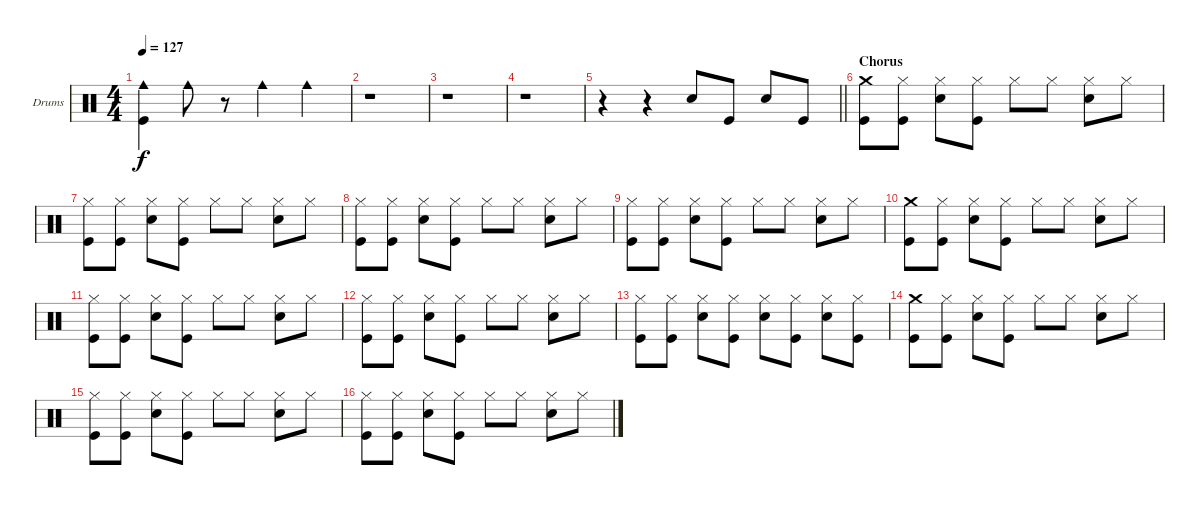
\bracketExtendMode groupsimilarinstruments
\firstSystemTrackNameOrientation horizontal
\otherSystemsTrackNameOrientation horizontal
\track ("Drumkit" "Drums") {instrument percussion}
\staff {score}
\articulation defaults
\ts (4 4)
\tempo 127
\clef neutral
\ks c
("Cowbell medium (hit)" "Kick (hit)").4{dy f} "Cowbell medium (hit)".8 r.8 "Cowbell medium (hit)".4 "Cowbell medium (hit)".4 |
r.1 |
r.1 |
r.1 |
\barLineRight lightlight
r.4 r.4 "Snare (hit) 2".8 "Kick (hit)".8 "Snare (hit) 2".8 "Kick (hit)".8 |
\section ("" "Chorus")
("Crash medium (hit)" "Kick (hit)").8 ("Hi-Hat (closed)" "Kick (hit)").8 ("Hi-Hat (closed)" "Snare (hit) 2").8 ("Hi-Hat (closed)" "Kick (hit)").8 "Hi-Hat (closed)".8 "Hi-Hat (closed)".8 ("Hi-Hat (closed)" "Snare (hit) 2").8 "Hi-Hat (closed)".8 |
("Hi-Hat (closed)" "Kick (hit)").8 ("Hi-Hat (closed)" "Kick (hit)").8 ("Hi-Hat (closed)" "Snare (hit) 2").8 ("Hi-Hat (closed)" "Kick (hit)").8 "Hi-Hat (closed)".8 "Hi-Hat (closed)".8 ("Hi-Hat (closed)" "Snare (hit) 2").8 "Hi-Hat (closed)".8 |
("Hi-Hat (closed)" "Kick (hit)").8 ("Hi-Hat (closed)" "Kick (hit)").8 ("Hi-Hat (closed)" "Snare (hit) 2").8 ("Hi-Hat (closed)" "Kick (hit)").8 "Hi-Hat (closed)".8 "Hi-Hat (closed)".8 ("Hi-Hat (closed)" "Snare (hit) 2").8 "Hi-Hat (closed)".8 |
("Hi-Hat (closed)" "Kick (hit)").8 ("Hi-Hat (closed)" "Kick (hit)").8 ("Hi-Hat (closed)" "Snare (hit) 2").8 ("Hi-Hat (closed)" "Kick (hit)").8 "Hi-Hat (closed)".8 "Hi-Hat (closed)".8 ("Hi-Hat (closed)" "Snare (hit) 2").8 "Hi-Hat (closed)".8 |
("Crash medium (hit)" "Kick (hit)").8 ("Hi-Hat (closed)" "Kick (hit)").8 ("Hi-Hat (closed)" "Snare (hit) 2").8 ("Hi-Hat (closed)" "Kick (hit)").8 "Hi-Hat (closed)".8 "Hi-Hat (closed)".8 ("Hi-Hat (closed)" "Snare (hit) 2").8 "Hi-Hat (closed)".8 |
("Hi-Hat (closed)" "Kick (hit)").8 ("Hi-Hat (closed)" "Kick (hit)").8 ("Hi-Hat (closed)" "Snare (hit) 2").8 ("Hi-Hat (closed)" "Kick (hit)").8 "Hi-Hat (closed)".8 "Hi-Hat (closed)".8 ("Hi-Hat (closed)" "Snare (hit) 2").8 "Hi-Hat (closed)".8 |
("Hi-Hat (closed)" "Kick (hit)").8 ("Hi-Hat (closed)" "Kick (hit)").8 ("Hi-Hat (closed)" "Snare (hit) 2").8 ("Hi-Hat (closed)" "Kick (hit)").8 "Hi-Hat (closed)".8 "Hi-Hat (closed)".8 ("Hi-Hat (closed)" "Snare (hit) 2").8 "Hi-Hat (closed)".8 |
("Hi-Hat (closed)" "Kick (hit)").8 ("Hi-Hat (closed)" "Kick (hit)").8 ("Hi-Hat (closed)" "Snare (hit) 2").8 ("Hi-Hat (closed)" "Kick (hit)").8 ("Hi-Hat (closed)" "Snare (hit) 2").8 ("Hi-Hat (closed)" "Kick (hit)").8 ("Hi-Hat (closed)" "Snare (hit) 2").8 ("Hi-Hat (closed)" "Kick (hit)").8 |
("Crash medium (hit)" "Kick (hit)").8 ("Hi-Hat (closed)" "Kick (hit)").8 ("Hi-Hat (closed)" "Snare (hit) 2").8 ("Hi-Hat (closed)" "Kick (hit)").8 "Hi-Hat (closed)".8 "Hi-Hat (closed)".8 ("Hi-Hat (closed)" "Snare (hit) 2").8 "Hi-Hat (closed)".8 |
("Hi-Hat (closed)" "Kick (hit)").8 ("Hi-Hat (closed)" "Kick (hit)").8 ("Hi-Hat (closed)" "Snare (hit) 2").8 ("Hi-Hat (closed)" "Kick (hit)").8 "Hi-Hat (closed)".8 "Hi-Hat (closed)".8 ("Hi-Hat (closed)" "Snare (hit) 2").8 "Hi-Hat (closed)".8 |
("Hi-Hat (closed)" "Kick (hit)").8 ("Hi-Hat (closed)" "Kick (hit)").8 ("Hi-Hat (closed)" "Snare (hit) 2").8 ("Hi-Hat (closed)" "Kick (hit)").8 "Hi-Hat (closed)".8 "Hi-Hat (closed)".8 ("Hi-Hat (closed)" "Snare (hit) 2").8 "Hi-Hat (closed)".8
